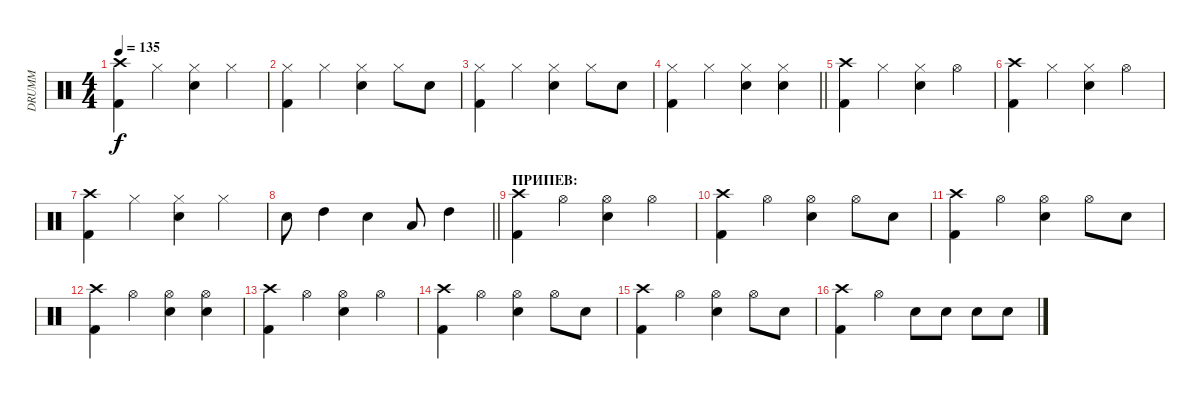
\track ("DRUMM" "DRUMM") {instrument percussion}
\staff {score}
\articulation defaults
\ts (4 4)
\tempo 135
\clef neutral
\ks c
("Crash high (hit)" "Kick (hit) 2").4{dy f} "Hi-Hat (closed)".4 ("Electric Snare (hit)" "Hi-Hat (closed)").4 "Hi-Hat (closed)".4 |
("Hi-Hat (closed)" "Kick (hit) 2").4 "Hi-Hat (closed)".4 ("Hi-Hat (closed)" "Electric Snare (hit)").4 "Hi-Hat (closed)".8 "Electric Snare (hit)".8 |
("Hi-Hat (closed)" "Kick (hit) 2").4 "Hi-Hat (closed)".4 ("Hi-Hat (closed)" "Electric Snare (hit)").4 "Hi-Hat (closed)".8 "Electric Snare (hit)".8 |
\barLineRight lightlight
("Hi-Hat (closed)" "Kick (hit) 2").4 "Hi-Hat (closed)".4 ("Hi-Hat (closed)" "Electric Snare (hit)").4 ("Hi-Hat (closed)" "Electric Snare (hit)").4 |
("Crash high (hit)" "Kick (hit) 2").4 "Hi-Hat (closed)".4 ("Electric Snare (hit)" "Hi-Hat (closed)").4 "Hi-Hat (open)".4 |
("Crash high (hit)" "Kick (hit) 2").4 "Hi-Hat (closed)".4 ("Hi-Hat (closed)" "Electric Snare (hit)").4 "Hi-Hat (open)".4 |
("Crash high (hit)" "Kick (hit) 2").4 "Hi-Hat (closed)".4 ("Hi-Hat (closed)" "Electric Snare (hit)").4 "Hi-Hat (closed)".4 |
\barLineRight lightlight "Electric Snare (hit)".8 "High Tom (hit)".4 "Electric Snare (hit)".4 "Low Tom (hit)".8 "High Tom (hit)".4
|
\section ("" "ПРИПЕВ:")
("Crash high (hit)" "Kick (hit) 2").4 "Hi-Hat (open)".4 ("Hi-Hat (open)" "Electric Snare (hit)").4 "Hi-Hat (open)".4 |
("Crash high (hit)" "Kick (hit) 2").4 "Hi-Hat (open)".4 ("Hi-Hat (open)" "Electric Snare (hit)").4 "Hi-Hat (open)".8 "Electric Snare (hit)".8 |
("Crash high (hit)" "Kick (hit) 2").4 "Hi-Hat (open)".4 ("Hi-Hat (open)" "Electric Snare (hit)").4 "Hi-Hat (open)".8 "Electric Snare (hit)".8 |
("Crash high (hit)" "Kick (hit) 2").4 "Hi-Hat (open)".4 ("Hi-Hat (open)" "Electric Snare (hit)").4 ("Electric Snare (hit)" "Hi-Hat (open)").4 |
("Crash high (hit)" "Kick (hit) 2").4 "Hi-Hat (open)".4 ("Hi-Hat (open)" "Electric Snare (hit)").4 "Hi-Hat (open)".4 |
("Crash high (hit)" "Kick (hit) 2").4 "Hi-Hat (open)".4 ("Hi-Hat (open)" "Electric Snare (hit)").4 "Hi-Hat (open)".8 "Electric Snare (hit)".8 |
("Crash high (hit)" "Kick (hit) 2").4 "Hi-Hat (open)".4 ("Hi-Hat (open)" "Electric Snare (hit)").4 "Hi-Hat (open)".8 "Electric Snare (hit)".8 |
("Crash high (hit)" "Kick (hit) 2").4 "Hi-Hat (open)".4 "Electric Snare (hit)".8 "Electric Snare (hit)".8 "Electric Snare (hit)".8 "Electric Snare (hit)".8
